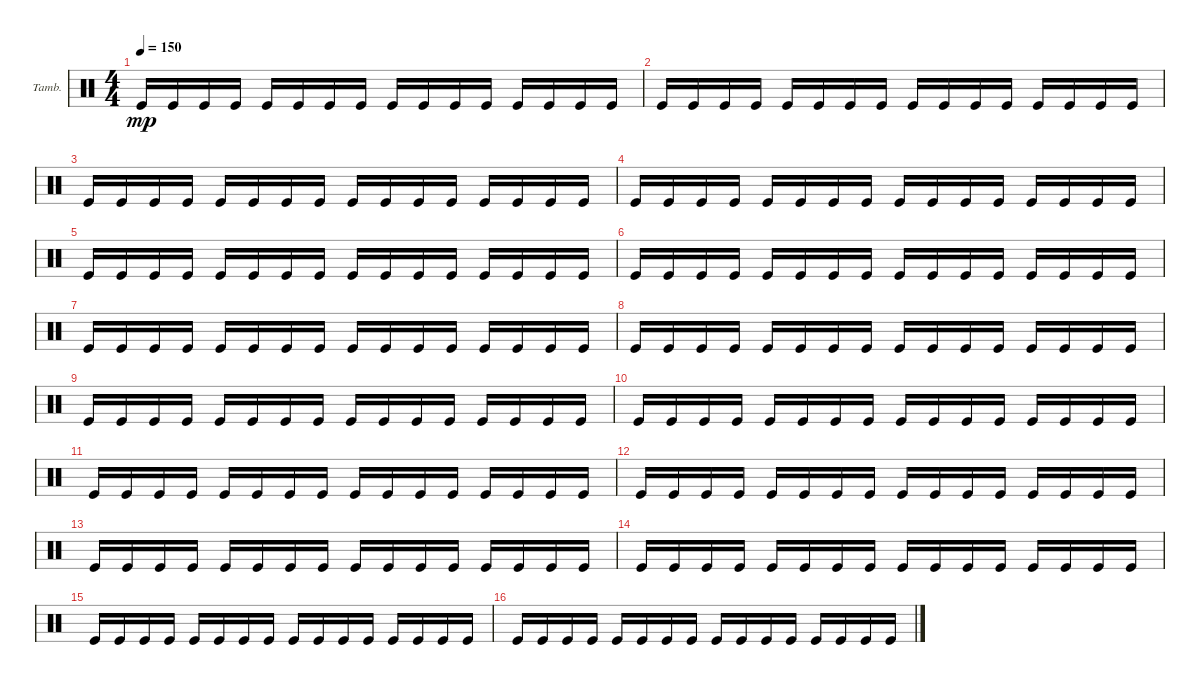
\defaultSystemsLayout 4
\bracketExtendMode groupsimilarinstruments
\firstSystemTrackNameOrientation horizontal
\otherSystemsTrackNameOrientation horizontal
\track ("Tambourine" "Tamb.") {instrument percussion}
\staff {score}
\articulation defaults
\ts (4 4)
\tempo 150
\clef neutral
\ks c "Kick (hit)".16{dy mp} "Kick (hit)".16 "Kick (hit)".16 "Kick (hit)".16 "Kick (hit)".16 "Kick (hit)".16 "Kick (hit)".16 "Kick (hit)".16 "Kick (hit)".16 "Kick (hit)".16 "Kick (hit)".16 "Kick (hit)".16 "Kick (hit)".16 "Kick (hit)".16 "Kick (hit)".16 "Kick (hit)".16
|
"Kick (hit)".16 "Kick (hit)".16 "Kick (hit)".16 "Kick (hit)".16 "Kick (hit)".16 "Kick (hit)".16 "Kick (hit)".16 "Kick (hit)".16 "Kick (hit)".16 "Kick (hit)".16 "Kick (hit)".16 "Kick (hit)".16 "Kick (hit)".16 "Kick (hit)".16 "Kick (hit)".16 "Kick (hit)".16 |
"Kick (hit)".16 "Kick (hit)".16 "Kick (hit)".16 "Kick (hit)".16 "Kick (hit)".16 "Kick (hit)".16 "Kick (hit)".16 "Kick (hit)".16 "Kick (hit)".16 "Kick (hit)".16 "Kick (hit)".16 "Kick (hit)".16 "Kick (hit)".16 "Kick (hit)".16 "Kick (hit)".16 "Kick (hit)".16 |
"Kick (hit)".16 "Kick (hit)".16 "Kick (hit)".16 "Kick (hit)".16 "Kick (hit)".16 "Kick (hit)".16 "Kick (hit)".16 "Kick (hit)".16 "Kick (hit)".16 "Kick (hit)".16 "Kick (hit)".16 "Kick (hit)".16 "Kick (hit)".16 "Kick (hit)".16 "Kick (hit)".16 "Kick (hit)".16 |
"Kick (hit)".16 "Kick (hit)".16 "Kick (hit)".16 "Kick (hit)".16 "Kick (hit)".16 "Kick (hit)".16 "Kick (hit)".16 "Kick (hit)".16 "Kick (hit)".16 "Kick (hit)".16 "Kick (hit)".16 "Kick (hit)".16 "Kick (hit)".16 "Kick (hit)".16 "Kick (hit)".16 "Kick (hit)".16 |
"Kick (hit)".16 "Kick (hit)".16 "Kick (hit)".16 "Kick (hit)".16 "Kick (hit)".16 "Kick (hit)".16 "Kick (hit)".16 "Kick (hit)".16 "Kick (hit)".16 "Kick (hit)".16 "Kick (hit)".16 "Kick (hit)".16 "Kick (hit)".16 "Kick (hit)".16 "Kick (hit)".16 "Kick (hit)".16 |
"Kick (hit)".16 "Kick (hit)".16 "Kick (hit)".16 "Kick (hit)".16 "Kick (hit)".16 "Kick (hit)".16 "Kick (hit)".16 "Kick (hit)".16 "Kick (hit)".16 "Kick (hit)".16 "Kick (hit)".16 "Kick (hit)".16 "Kick (hit)".16 "Kick (hit)".16 "Kick (hit)".16 "Kick (hit)".16 |
"Kick (hit)".16 "Kick (hit)".16 "Kick (hit)".16 "Kick (hit)".16 "Kick (hit)".16 "Kick (hit)".16 "Kick (hit)".16 "Kick (hit)".16 "Kick (hit)".16 "Kick (hit)".16 "Kick (hit)".16 "Kick (hit)".16 "Kick (hit)".16 "Kick (hit)".16 "Kick (hit)".16 "Kick (hit)".16 |
"Kick (hit)".16 "Kick (hit)".16 "Kick (hit)".16 "Kick (hit)".16 "Kick (hit)".16 "Kick (hit)".16 "Kick (hit)".16 "Kick (hit)".16 "Kick (hit)".16 "Kick (hit)".16 "Kick (hit)".16 "Kick (hit)".16 "Kick (hit)".16 "Kick (hit)".16 "Kick (hit)".16 "Kick (hit)".16 |
"Kick (hit)".16 "Kick (hit)".16 "Kick (hit)".16 "Kick (hit)".16 "Kick (hit)".16 "Kick (hit)".16 "Kick (hit)".16 "Kick (hit)".16 "Kick (hit)".16 "Kick (hit)".16 "Kick (hit)".16 "Kick (hit)".16 "Kick (hit)".16 "Kick (hit)".16 "Kick (hit)".16 "Kick (hit)".16 |
"Kick (hit)".16 "Kick (hit)".16 "Kick (hit)".16 "Kick (hit)".16 "Kick (hit)".16 "Kick (hit)".16 "Kick (hit)".16 "Kick (hit)".16 "Kick (hit)".16 "Kick (hit)".16 "Kick (hit)".16 "Kick (hit)".16 "Kick (hit)".16 "Kick (hit)".16 "Kick (hit)".16 "Kick (hit)".16 |
"Kick (hit)".16 "Kick (hit)".16 "Kick (hit)".16 "Kick (hit)".16 "Kick (hit)".16 "Kick (hit)".16 "Kick (hit)".16 "Kick (hit)".16 "Kick (hit)".16 "Kick (hit)".16 "Kick (hit)".16 "Kick (hit)".16 "Kick (hit)".16 "Kick (hit)".16 "Kick (hit)".16 "Kick (hit)".16 |
"Kick (hit)".16 "Kick (hit)".16 "Kick (hit)".16 "Kick (hit)".16 "Kick (hit)".16 "Kick (hit)".16 "Kick (hit)".16 "Kick (hit)".16 "Kick (hit)".16 "Kick (hit)".16 "Kick (hit)".16 "Kick (hit)".16 "Kick (hit)".16 "Kick (hit)".16 "Kick (hit)".16 "Kick (hit)".16 |
"Kick (hit)".16 "Kick (hit)".16 "Kick (hit)".16 "Kick (hit)".16 "Kick (hit)".16 "Kick (hit)".16 "Kick (hit)".16 "Kick (hit)".16 "Kick (hit)".16 "Kick (hit)".16 "Kick (hit)".16 "Kick (hit)".16 "Kick (hit)".16 "Kick (hit)".16 "Kick (hit)".16 "Kick (hit)".16 |
"Kick (hit)".16 "Kick (hit)".16 "Kick (hit)".16 "Kick (hit)".16 "Kick (hit)".16 "Kick (hit)".16 "Kick (hit)".16 "Kick (hit)".16 "Kick (hit)".16 "Kick (hit)".16 "Kick (hit)".16 "Kick (hit)".16 "Kick (hit)".16 "Kick (hit)".16 "Kick (hit)".16 "Kick (hit)".16 |
"Kick (hit)".16 "Kick (hit)".16 "Kick (hit)".16 "Kick (hit)".16 "Kick (hit)".16 "Kick (hit)".16 "Kick (hit)".16 "Kick (hit)".16 "Kick (hit)".16 "Kick (hit)".16 "Kick (hit)".16 "Kick (hit)".16 "Kick (hit)".16 "Kick (hit)".16 "Kick (hit)".16 "Kick (hit)".16
